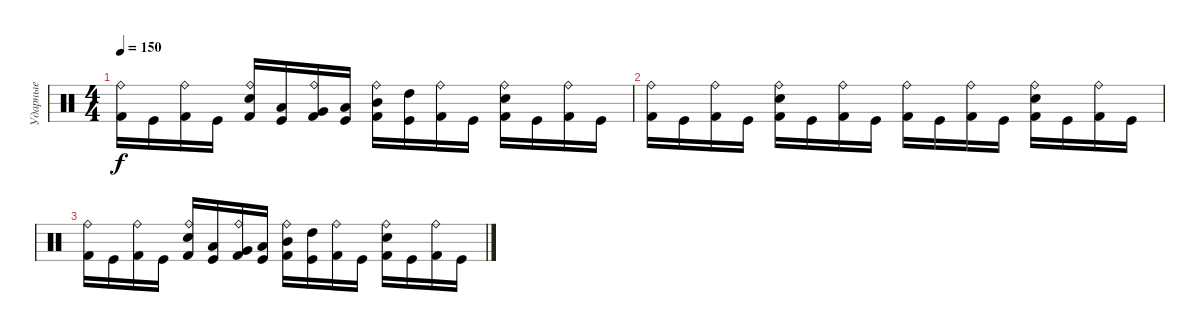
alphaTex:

\track ("Ударные" "Ударные") {instrument percussion}
\staff {score}
\articulation defaults
\ts (4 4)
\tempo 150
\clef neutral
\ks c
("Kick (hit) 2" "Ride (bell)").16{dy f} "Kick (hit)".16 ("Kick (hit) 2" "Ride (bell)").16 "Kick (hit)".16 ("Kick (hit) 2" "Electric Snare (hit)" "Ride (bell)").16 ("Kick (hit)" "Low Floor Tom (hit)").16 ("Kick (hit) 2" "Very Low Tom (hit)" "Ride (bell)").16 ("Kick (hit)" "Low Tom (hit)").16 ("Kick (hit) 2" "Mid Tom (hit)" "Ride (bell)").16 ("Kick (hit)" "High Tom (hit)").16 ("Kick (hit) 2" "Ride (bell)").16 "Kick (hit)".16 ("Kick (hit) 2" "Electric Snare (hit)" "Ride (bell)").16 "Kick (hit)".16 ("Kick (hit) 2" "Ride (bell)").16 "Kick (hit)".16 |
("Kick (hit) 2" "Ride (bell)").16 "Kick (hit)".16 ("Kick (hit) 2" "Ride (bell)").16 "Kick (hit)".16 ("Kick (hit) 2" "Electric Snare (hit)" "Ride (bell)").16 "Kick (hit)".16 ("Kick (hit) 2" "Ride (bell)").16 "Kick (hit)".16 ("Kick (hit) 2" "Ride (bell)").16 "Kick (hit)".16 ("Kick (hit) 2" "Ride (bell)").16 "Kick (hit)".16 ("Kick (hit) 2" "Electric Snare (hit)" "Ride (bell)").16 "Kick (hit)".16 ("Kick (hit) 2" "Ride (bell)").16 "Kick (hit)".16 |
("Kick (hit) 2" "Ride (bell)").16 "Kick (hit)".16 ("Kick (hit) 2" "Ride (bell)").16 "Kick (hit)".16 ("Kick (hit) 2" "Electric Snare (hit)" "Ride (bell)").16 ("Kick (hit)" "Low Floor Tom (hit)").16 ("Kick (hit) 2" "Very Low Tom (hit)" "Ride (bell)").16 ("Kick (hit)" "Low Tom (hit)").16 ("Kick (hit) 2" "Mid Tom (hit)" "Ride (bell)").16 ("Kick (hit)" "High Tom (hit)").16 ("Kick (hit) 2" "Ride (bell)").16 "Kick (hit)".16 ("Kick (hit) 2" "Electric Snare (hit)" "Ride (bell)").16 "Kick (hit)".16 ("Kick (hit) 2" "Ride (bell)").16 "Kick (hit)".16
